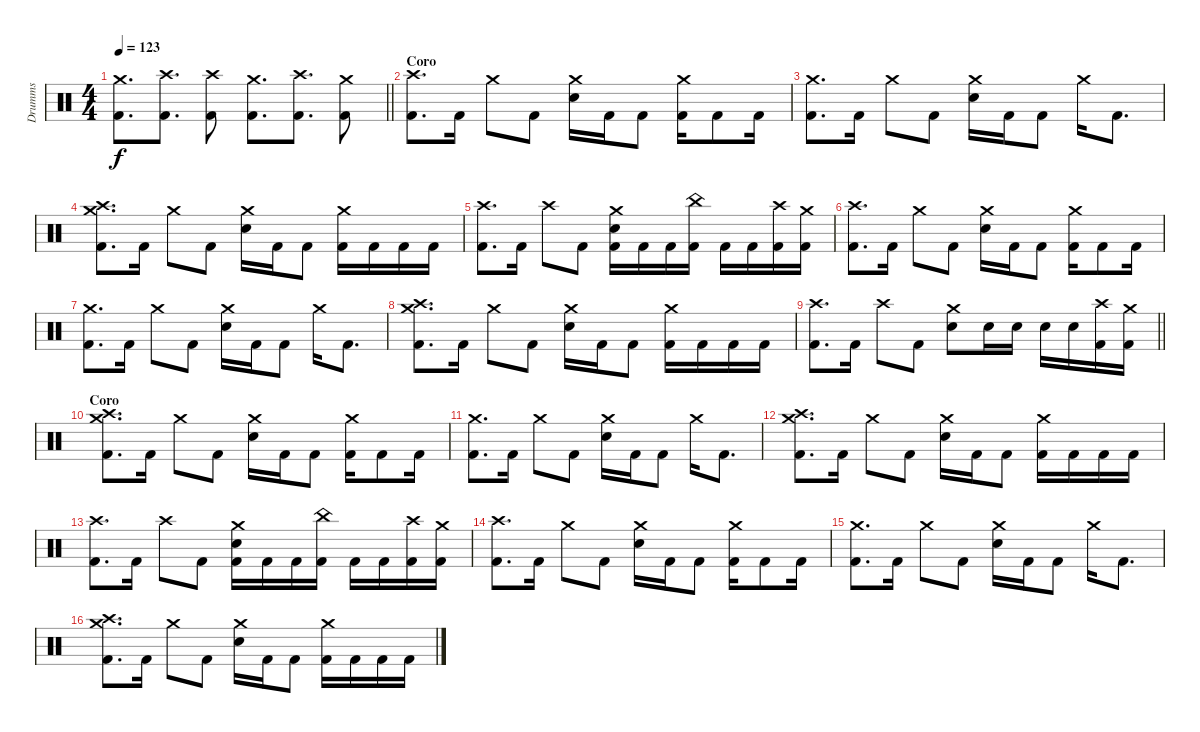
\track ("Drumms" "Drumms") {instrument percussion}
\staff {score}
\articulation defaults
\ts (4 4)
\tempo 123
\clef neutral
\barLineRight lightlight
\ks aminor
("Crash medium (hit)" "Kick (hit) 2").8{d dy f} ("Crash high (hit)" "Kick (hit) 2").8{d} ("Crash high (hit)" "Kick (hit) 2").8 ("Crash medium (hit)" "Kick (hit) 2").8{d} ("Crash high (hit)" "Kick (hit) 2").8{d} ("Crash medium (hit)" "Kick (hit) 2").8 |
\section ("" "Coro")
("Crash high (hit)" "Kick (hit) 2").8{d} "Kick (hit) 2".16 "Crash medium (hit)".8 "Kick (hit) 2".8 ("Crash medium (hit)" "Electric Snare (hit)").16 "Kick (hit) 2".16 "Kick (hit) 2".8 ("Crash medium (hit)" "Kick (hit) 2").16 "Kick (hit) 2".8 "Kick (hit) 2".16 |
("Crash medium (hit)" "Kick (hit) 2").8{d} "Kick (hit) 2".16 "Crash medium (hit)".8 "Kick (hit) 2".8 ("Crash medium (hit)" "Electric Snare (hit)").16 "Kick (hit) 2".16 "Kick (hit) 2".8 "Crash medium (hit)".16 "Kick (hit) 2".8{d} |
("Crash medium (hit)" "Crash high (hit)" "Kick (hit) 2").8{d} "Kick (hit) 2".16 "Crash medium (hit)".8 "Kick (hit) 2".8 ("Crash medium (hit)" "Electric Snare (hit)").16 "Kick (hit) 2".16 "Kick (hit) 2".8 ("Crash medium (hit)" "Kick (hit) 2").16 "Kick (hit) 2".16 "Kick (hit) 2".16 "Kick (hit) 2".16 |
("Crash high (hit)" "Kick (hit) 2").8{d} "Kick (hit) 2".16 "Crash high (hit)".8 "Kick (hit) 2".8 ("Crash medium (hit)" "Electric Snare (hit)" "Kick (hit) 2").16 "Kick (hit) 2".16 "Kick (hit) 2".16 ("China (hit)" "Kick (hit) 2").16 "Kick (hit) 2".16 "Kick (hit) 2".16 ("Crash high (hit)" "Kick (hit) 2").16 ("Crash medium (hit)" "Kick (hit) 2").16 |
("Crash high (hit)" "Kick (hit) 2").8{d} "Kick (hit) 2".16 "Crash medium (hit)".8 "Kick (hit) 2".8 ("Crash medium (hit)" "Electric Snare (hit)").16 "Kick (hit) 2".16 "Kick (hit) 2".8 ("Crash medium (hit)" "Kick (hit) 2").16 "Kick (hit) 2".8 "Kick (hit) 2".16 |
("Crash medium (hit)" "Kick (hit) 2").8{d} "Kick (hit) 2".16 "Crash medium (hit)".8 "Kick (hit) 2".8 ("Crash medium (hit)" "Electric Snare (hit)").16 "Kick (hit) 2".16 "Kick (hit) 2".8 "Crash medium (hit)".16 "Kick (hit) 2".8{d} |
("Crash medium (hit)" "Crash high (hit)" "Kick (hit) 2").8{d} "Kick (hit) 2".16 "Crash medium (hit)".8 "Kick (hit) 2".8 ("Crash medium (hit)" "Electric Snare (hit)").16 "Kick (hit) 2".16 "Kick (hit) 2".8 ("Crash medium (hit)" "Kick (hit) 2").16 "Kick (hit) 2".16 "Kick (hit) 2".16 "Kick (hit) 2".16 |
\barLineRight lightlight
("Crash high (hit)" "Kick (hit) 2").8{d} "Kick (hit) 2".16 "Crash high (hit)".8 "Kick (hit) 2".8 ("Crash medium (hit)" "Electric Snare (hit)").8 "Electric Snare (hit)".16 "Electric Snare (hit)".16 "Electric Snare (hit)".16 "Electric Snare (hit)".16 ("Crash high (hit)" "Kick (hit) 2").16 ("Crash medium (hit)" "Kick (hit) 2").16 |
\section ("" "Coro")
("Crash medium (hit)" "Crash high (hit)" "Kick (hit) 2").8{d} "Kick (hit) 2".16 "Crash medium (hit)".8 "Kick (hit) 2".8 ("Crash medium (hit)" "Electric Snare (hit)").16 "Kick (hit) 2".16 "Kick (hit) 2".8 ("Crash medium (hit)" "Kick (hit) 2").16 "Kick (hit) 2".8 "Kick (hit) 2".16 |
("Crash medium (hit)" "Kick (hit) 2").8{d} "Kick (hit) 2".16 "Crash medium (hit)".8 "Kick (hit) 2".8 ("Crash medium (hit)" "Electric Snare (hit)").16 "Kick (hit) 2".16 "Kick (hit) 2".8 "Crash medium (hit)".16 "Kick (hit) 2".8{d} |
("Crash medium (hit)" "Crash high (hit)" "Kick (hit) 2").8{d} "Kick (hit) 2".16 "Crash medium (hit)".8 "Kick (hit) 2".8 ("Crash medium (hit)" "Electric Snare (hit)").16 "Kick (hit) 2".16 "Kick (hit) 2".8 ("Crash medium (hit)" "Kick (hit) 2").16 "Kick (hit) 2".16 "Kick (hit) 2".16 "Kick (hit) 2".16 |
("Crash high (hit)" "Kick (hit) 2").8{d} "Kick (hit) 2".16 "Crash high (hit)".8 "Kick (hit) 2".8 ("Crash medium (hit)" "Electric Snare (hit)" "Kick (hit) 2").16 "Kick (hit) 2".16 "Kick (hit) 2".16 ("China (hit)" "Kick (hit) 2").16 "Kick (hit) 2".16 "Kick (hit) 2".16 ("Crash high (hit)" "Kick (hit) 2").16 ("Crash medium (hit)" "Kick (hit) 2").16 |
("Crash high (hit)" "Kick (hit) 2").8{d} "Kick (hit) 2".16 "Crash medium (hit)".8 "Kick (hit) 2".8 ("Crash medium (hit)" "Electric Snare (hit)").16 "Kick (hit) 2".16 "Kick (hit) 2".8 ("Crash medium (hit)" "Kick (hit) 2").16 "Kick (hit) 2".8 "Kick (hit) 2".16 |
("Crash medium (hit)" "Kick (hit) 2").8{d} "Kick (hit) 2".16 "Crash medium (hit)".8 "Kick (hit) 2".8 ("Crash medium (hit)" "Electric Snare (hit)").16 "Kick (hit) 2".16 "Kick (hit) 2".8 "Crash medium (hit)".16 "Kick (hit) 2".8{d} |
("Crash medium (hit)" "Crash high (hit)" "Kick (hit) 2").8{d} "Kick (hit) 2".16 "Crash medium (hit)".8 "Kick (hit) 2".8 ("Crash medium (hit)" "Electric Snare (hit)").16 "Kick (hit) 2".16 "Kick (hit) 2".8 ("Crash medium (hit)" "Kick (hit) 2").16 "Kick (hit) 2".16 "Kick (hit) 2".16 "Kick (hit) 2".16
